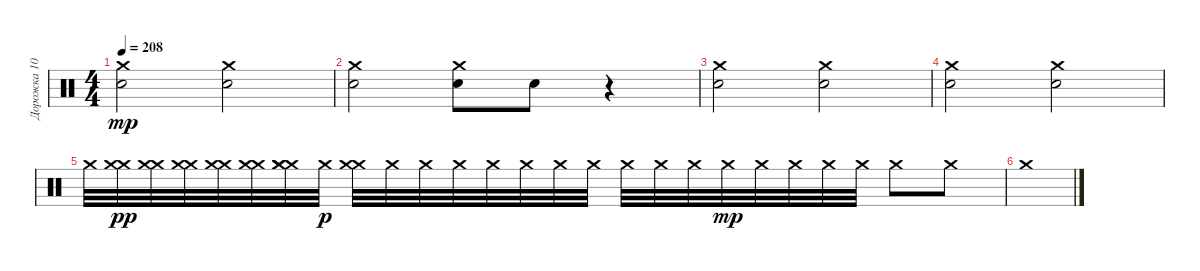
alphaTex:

\track ("Дорожка 10" "Дорожка 10") {instrument percussion}
\staff {score}
\articulation defaults
\ts (4 4)
\tempo 208
\clef neutral
\ks c
("Snare (hit) 2" "Crash medium (hit)").2{dy mp} ("Snare (hit) 2" "Crash medium (hit)").2 |
("Snare (hit) 2" "Crash medium (hit)").2 ("Snare (hit) 2" "Crash medium (hit)").8 "Snare (hit) 2".8 r.4 |
("Snare (hit) 2" "Crash medium (hit)").2 ("Snare (hit) 2" "Crash medium (hit)").2 |
("Snare (hit) 2" "Crash medium (hit)").2 ("Snare (hit) 2" "Crash medium (hit)").2 |
"Crash medium (hit)".32 ("Crash medium (hit)" "Crash medium (hit)").32{dy pp} ("Crash medium (hit)" "Crash medium (hit)").32 ("Crash medium (hit)" "Crash medium (hit)").32 ("Crash medium (hit)" "Crash medium (hit)").32 ("Crash medium (hit)" "Crash medium (hit)").32 ("Crash medium (hit)" "Crash medium (hit)" "Crash medium (hit)").32 "Crash medium (hit)".32{dy p} ("Crash medium (hit)" "Crash medium (hit)").32 "Crash medium (hit)".32 "Crash medium (hit)".32 "Crash medium (hit)".32 "Crash medium (hit)".32 "Crash medium (hit)".32 "Crash medium (hit)".32 "Crash medium (hit)".32 "Crash medium (hit)".32 "Crash medium (hit)".32 "Crash medium (hit)".32 "Crash medium (hit)".32{dy mp} "Crash medium (hit)".32 "Crash medium (hit)".32 "Crash medium (hit)".32 "Crash medium (hit)".32 "Crash medium (hit)".8 "Crash medium (hit)".8 |
"Crash medium (hit)".1
